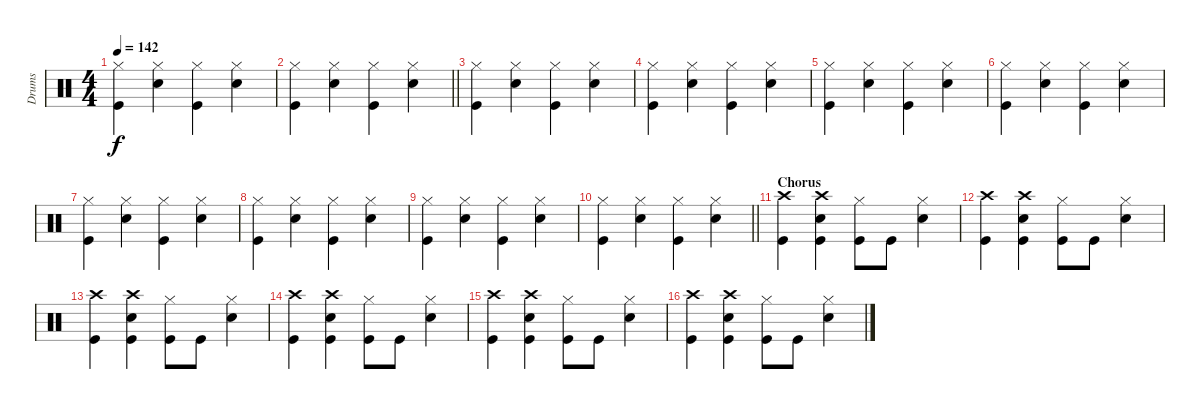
\track ("Drums" "Drums") {instrument percussion}
\staff {score}
\articulation defaults
\ts (4 4)
\tempo 142
\clef neutral
\ks c
("Hi-Hat (closed)" "Kick (hit)").4{dy f} ("Hi-Hat (closed)" "Snare (hit) 2").4 ("Hi-Hat (closed)" "Kick (hit)").4 ("Hi-Hat (closed)" "Snare (hit) 2").4 |
\barLineRight lightlight
("Hi-Hat (closed)" "Kick (hit)").4 ("Hi-Hat (closed)" "Snare (hit) 2").4 ("Hi-Hat (closed)" "Kick (hit)").4 ("Hi-Hat (closed)" "Snare (hit) 2").4 |
("Hi-Hat (closed)" "Kick (hit)").4 ("Hi-Hat (closed)" "Snare (hit) 2").4 ("Hi-Hat (closed)" "Kick (hit)").4 ("Hi-Hat (closed)" "Snare (hit) 2").4 |
("Hi-Hat (closed)" "Kick (hit)").4 ("Hi-Hat (closed)" "Snare (hit) 2").4 ("Hi-Hat (closed)" "Kick (hit)").4 ("Hi-Hat (closed)" "Snare (hit) 2").4 |
("Hi-Hat (closed)" "Kick (hit)").4 ("Hi-Hat (closed)" "Snare (hit) 2").4 ("Hi-Hat (closed)" "Kick (hit)").4 ("Hi-Hat (closed)" "Snare (hit) 2").4 |
("Hi-Hat (closed)" "Kick (hit)").4 ("Hi-Hat (closed)" "Snare (hit) 2").4 ("Hi-Hat (closed)" "Kick (hit)").4 ("Hi-Hat (closed)" "Snare (hit) 2").4 |
("Hi-Hat (closed)" "Kick (hit)").4 ("Hi-Hat (closed)" "Snare (hit) 2").4 ("Hi-Hat (closed)" "Kick (hit)").4 ("Hi-Hat (closed)" "Snare (hit) 2").4 |
("Hi-Hat (closed)" "Kick (hit)").4 ("Hi-Hat (closed)" "Snare (hit) 2").4 ("Hi-Hat (closed)" "Kick (hit)").4 ("Hi-Hat (closed)" "Snare (hit) 2").4 |
("Hi-Hat (closed)" "Kick (hit)").4 ("Hi-Hat (closed)" "Snare (hit) 2").4 ("Hi-Hat (closed)" "Kick (hit)").4 ("Hi-Hat (closed)" "Snare (hit) 2").4 |
\barLineRight lightlight
("Hi-Hat (closed)" "Kick (hit)").4 ("Hi-Hat (closed)" "Snare (hit) 2").4 ("Hi-Hat (closed)" "Kick (hit)").4 ("Hi-Hat (closed)" "Snare (hit) 2").4 |
\section ("" "Chorus")
("Crash high (hit)" "Kick (hit)").4 ("Crash high (hit)" "Snare (hit) 2" "Kick (hit)").4 ("Hi-Hat (closed)" "Kick (hit)").8 "Kick (hit)".8 ("Hi-Hat (closed)" "Snare (hit) 2").4 |
("Crash high (hit)" "Kick (hit)").4 ("Crash high (hit)" "Snare (hit) 2" "Kick (hit)").4 ("Hi-Hat (closed)" "Kick (hit)").8 "Kick (hit)".8 ("Hi-Hat (closed)" "Snare (hit) 2").4 |
("Crash high (hit)" "Kick (hit)").4 ("Crash high (hit)" "Snare (hit) 2" "Kick (hit)").4 ("Hi-Hat (closed)" "Kick (hit)").8 "Kick (hit)".8 ("Hi-Hat (closed)" "Snare (hit) 2").4 |
("Crash high (hit)" "Kick (hit)").4 ("Crash high (hit)" "Snare (hit) 2" "Kick (hit)").4 ("Hi-Hat (closed)" "Kick (hit)").8 "Kick (hit)".8 ("Hi-Hat (closed)" "Snare (hit) 2").4 |
("Crash high (hit)" "Kick (hit)").4 ("Crash high (hit)" "Snare (hit) 2" "Kick (hit)").4 ("Hi-Hat (closed)" "Kick (hit)").8 "Kick (hit)".8 ("Hi-Hat (closed)" "Snare (hit) 2").4 |
("Crash high (hit)" "Kick (hit)").4 ("Crash high (hit)" "Snare (hit) 2" "Kick (hit)").4 ("Hi-Hat (closed)" "Kick (hit)").8 "Kick (hit)".8 ("Hi-Hat (closed)" "Snare (hit) 2").4
